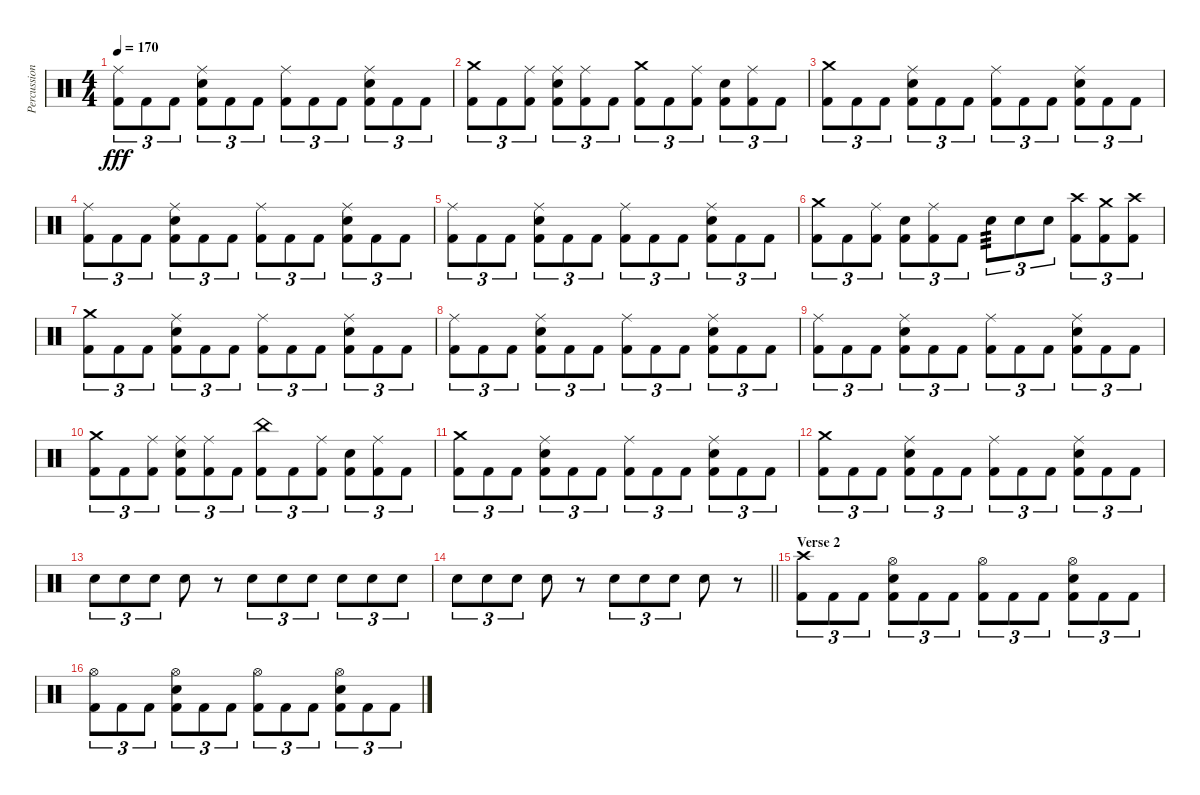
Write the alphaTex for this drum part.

\track ("Percussion" "Percussion") {instrument percussion}
\staff {score}
\articulation defaults
\ts (4 4)
\tempo 170
\clef neutral
\ks c
("Ride (middle)" "Kick (hit) 2").8{tu (3 2) dy fff} "Kick (hit) 2".8{tu (3 2)} "Kick (hit) 2".8{tu (3 2)} ("Ride (middle)" "Snare (hit) 2" "Kick (hit) 2").8{tu (3 2)} "Kick (hit) 2".8{tu (3 2)} "Kick (hit) 2".8{tu (3 2)} ("Ride (middle)" "Kick (hit) 2").8{tu (3 2)} "Kick (hit) 2".8{tu (3 2)} "Kick (hit) 2".8{tu (3 2)} ("Ride (middle)" "Snare (hit) 2" "Kick (hit) 2").8{tu (3 2)} "Kick (hit) 2".8{tu (3 2)} "Kick (hit) 2".8{tu (3 2)} |
("Crash medium (hit)" "Kick (hit) 2").8{tu (3 2)} "Kick (hit) 2".8{tu (3 2)} ("Ride (middle)" "Kick (hit) 2").8{tu (3 2)} ("Ride (middle)" "Snare (hit) 2" "Kick (hit) 2").8{tu (3 2)} ("Ride (middle)" "Kick (hit) 2").8{tu (3 2)} "Kick (hit) 2".8{tu (3 2)} ("Crash medium (hit)" "Kick (hit) 2").8{tu (3 2)} "Kick (hit) 2".8{tu (3 2)} ("Ride (middle)" "Kick (hit) 2").8{tu (3 2)} ("Snare (hit) 2" "Kick (hit) 2").8{tu (3 2)} ("Ride (middle)" "Kick (hit) 2").8{tu (3 2)} "Kick (hit) 2".8{tu (3 2)} |
("Crash medium (hit)" "Kick (hit) 2").8{tu (3 2)} "Kick (hit) 2".8{tu (3 2)} "Kick (hit) 2".8{tu (3 2)} ("Ride (middle)" "Snare (hit) 2" "Kick (hit) 2").8{tu (3 2)} "Kick (hit) 2".8{tu (3 2)} "Kick (hit) 2".8{tu (3 2)} ("Ride (middle)" "Kick (hit) 2").8{tu (3 2)} "Kick (hit) 2".8{tu (3 2)} "Kick (hit) 2".8{tu (3 2)} ("Ride (middle)" "Snare (hit) 2" "Kick (hit) 2").8{tu (3 2)} "Kick (hit) 2".8{tu (3 2)} "Kick (hit) 2".8{tu (3 2)} |
("Ride (middle)" "Kick (hit) 2").8{tu (3 2)} "Kick (hit) 2".8{tu (3 2)} "Kick (hit) 2".8{tu (3 2)} ("Ride (middle)" "Snare (hit) 2" "Kick (hit) 2").8{tu (3 2)} "Kick (hit) 2".8{tu (3 2)} "Kick (hit) 2".8{tu (3 2)} ("Ride (middle)" "Kick (hit) 2").8{tu (3 2)} "Kick (hit) 2".8{tu (3 2)} "Kick (hit) 2".8{tu (3 2)} ("Ride (middle)" "Snare (hit) 2" "Kick (hit) 2").8{tu (3 2)} "Kick (hit) 2".8{tu (3 2)} "Kick (hit) 2".8{tu (3 2)} |
("Ride (middle)" "Kick (hit) 2").8{tu (3 2)} "Kick (hit) 2".8{tu (3 2)} "Kick (hit) 2".8{tu (3 2)} ("Ride (middle)" "Snare (hit) 2" "Kick (hit) 2").8{tu (3 2)} "Kick (hit) 2".8{tu (3 2)} "Kick (hit) 2".8{tu (3 2)} ("Ride (middle)" "Kick (hit) 2").8{tu (3 2)} "Kick (hit) 2".8{tu (3 2)} "Kick (hit) 2".8{tu (3 2)} ("Ride (middle)" "Snare (hit) 2" "Kick (hit) 2").8{tu (3 2)} "Kick (hit) 2".8{tu (3 2)} "Kick (hit) 2".8{tu (3 2)} |
("Crash medium (hit)" "Kick (hit) 2").8{tu (3 2)} "Kick (hit) 2".8{tu (3 2)} ("Ride (middle)" "Kick (hit) 2").8{tu (3 2)} ("Snare (hit) 2" "Kick (hit) 2").8{tu (3 2)} ("Ride (middle)" "Kick (hit) 2").8{tu (3 2)} "Kick (hit) 2".8{tu (3 2)} "Electric Snare (hit)".8{tu (3 2) tp 3} "Electric Snare (hit)".8{tu (3 2)} "Electric Snare (hit)".8{tu (3 2)} ("Crash high (hit)" "Kick (hit) 2").8{tu (3 2)} ("Crash medium (hit)" "Kick (hit) 2").8{tu (3 2)} ("Crash high (hit)" "Kick (hit) 2").8{tu (3 2)} |
("Crash medium (hit)" "Kick (hit) 2").8{tu (3 2)} "Kick (hit) 2".8{tu (3 2)} "Kick (hit) 2".8{tu (3 2)} ("Ride (middle)" "Snare (hit) 2" "Kick (hit) 2").8{tu (3 2)} "Kick (hit) 2".8{tu (3 2)} "Kick (hit) 2".8{tu (3 2)} ("Ride (middle)" "Kick (hit) 2").8{tu (3 2)} "Kick (hit) 2".8{tu (3 2)} "Kick (hit) 2".8{tu (3 2)} ("Ride (middle)" "Snare (hit) 2" "Kick (hit) 2").8{tu (3 2)} "Kick (hit) 2".8{tu (3 2)} "Kick (hit) 2".8{tu (3 2)} |
("Ride (middle)" "Kick (hit) 2").8{tu (3 2)} "Kick (hit) 2".8{tu (3 2)} "Kick (hit) 2".8{tu (3 2)} ("Ride (middle)" "Snare (hit) 2" "Kick (hit) 2").8{tu (3 2)} "Kick (hit) 2".8{tu (3 2)} "Kick (hit) 2".8{tu (3 2)} ("Ride (middle)" "Kick (hit) 2").8{tu (3 2)} "Kick (hit) 2".8{tu (3 2)} "Kick (hit) 2".8{tu (3 2)} ("Ride (middle)" "Snare (hit) 2" "Kick (hit) 2").8{tu (3 2)} "Kick (hit) 2".8{tu (3 2)} "Kick (hit) 2".8{tu (3 2)} |
("Ride (middle)" "Kick (hit) 2").8{tu (3 2)} "Kick (hit) 2".8{tu (3 2)} "Kick (hit) 2".8{tu (3 2)} ("Ride (middle)" "Snare (hit) 2" "Kick (hit) 2").8{tu (3 2)} "Kick (hit) 2".8{tu (3 2)} "Kick (hit) 2".8{tu (3 2)} ("Ride (middle)" "Kick (hit) 2").8{tu (3 2)} "Kick (hit) 2".8{tu (3 2)} "Kick (hit) 2".8{tu (3 2)} ("Ride (middle)" "Snare (hit) 2" "Kick (hit) 2").8{tu (3 2)} "Kick (hit) 2".8{tu (3 2)} "Kick (hit) 2".8{tu (3 2)} |
("Crash medium (hit)" "Kick (hit) 2").8{tu (3 2)} "Kick (hit) 2".8{tu (3 2)} ("Ride (middle)" "Kick (hit) 2").8{tu (3 2)} ("Ride (middle)" "Snare (hit) 2" "Kick (hit) 2").8{tu (3 2)} ("Ride (middle)" "Kick (hit) 2").8{tu (3 2)} "Kick (hit) 2".8{tu (3 2)} ("China (hit)" "Kick (hit) 2").8{tu (3 2)} "Kick (hit) 2".8{tu (3 2)} ("Ride (middle)" "Kick (hit) 2").8{tu (3 2)} ("Snare (hit) 2" "Kick (hit) 2").8{tu (3 2)} ("Ride (middle)" "Kick (hit) 2").8{tu (3 2)} "Kick (hit) 2".8{tu (3 2)} |
("Crash medium (hit)" "Kick (hit) 2").8{tu (3 2)} "Kick (hit) 2".8{tu (3 2)} "Kick (hit) 2".8{tu (3 2)} ("Ride (middle)" "Snare (hit) 2" "Kick (hit) 2").8{tu (3 2)} "Kick (hit) 2".8{tu (3 2)} "Kick (hit) 2".8{tu (3 2)} ("Ride (middle)" "Kick (hit) 2").8{tu (3 2)} "Kick (hit) 2".8{tu (3 2)} "Kick (hit) 2".8{tu (3 2)} ("Ride (middle)" "Snare (hit) 2" "Kick (hit) 2").8{tu (3 2)} "Kick (hit) 2".8{tu (3 2)} "Kick (hit) 2".8{tu (3 2)} |
("Crash medium (hit)" "Kick (hit) 2").8{tu (3 2)} "Kick (hit) 2".8{tu (3 2)} "Kick (hit) 2".8{tu (3 2)} ("Ride (middle)" "Snare (hit) 2" "Kick (hit) 2").8{tu (3 2)} "Kick (hit) 2".8{tu (3 2)} "Kick (hit) 2".8{tu (3 2)} ("Ride (middle)" "Kick (hit) 2").8{tu (3 2)} "Kick (hit) 2".8{tu (3 2)} "Kick (hit) 2".8{tu (3 2)} ("Ride (middle)" "Snare (hit) 2" "Kick (hit) 2").8{tu (3 2)} "Kick (hit) 2".8{tu (3 2)} "Kick (hit) 2".8{tu (3 2)} |
"Electric Snare (hit)".8{tu (3 2)} "Electric Snare (hit)".8{tu (3 2)} "Electric Snare (hit)".8{tu (3 2)} "Electric Snare (hit)".8 r.8 "Electric Snare (hit)".8{tu (3 2)} "Electric Snare (hit)".8{tu (3 2)} "Electric Snare (hit)".8{tu (3 2)} "Electric Snare (hit)".8{tu (3 2)} "Electric Snare (hit)".8{tu (3 2)} "Electric Snare (hit)".8{tu (3 2)} |
\barLineRight lightlight "Electric Snare (hit)".8{tu (3 2)} "Electric Snare (hit)".8{tu (3 2)} "Electric Snare (hit)".8{tu (3 2)} "Electric Snare (hit)".8
r.8 "Electric Snare (hit)".8{tu (3 2)} "Electric Snare (hit)".8{tu (3 2)} "Electric Snare (hit)".8{tu (3 2)} "Electric Snare (hit)".8 r.8 |
\section ("" "Verse 2")
("Crash high (hit)" "Kick (hit) 2").8{tu (3 2)} "Kick (hit) 2".8{tu (3 2)} "Kick (hit) 2".8{tu (3 2)} ("Hi-Hat (open)" "Snare (hit) 2" "Kick (hit) 2").8{tu (3 2)} "Kick (hit) 2".8{tu (3 2)} "Kick (hit) 2".8{tu (3 2)} ("Hi-Hat (open)" "Kick (hit) 2").8{tu (3 2)} "Kick (hit) 2".8{tu (3 2)} "Kick (hit) 2".8{tu (3 2)} ("Hi-Hat (open)" "Snare (hit) 2" "Kick (hit) 2").8{tu (3 2)} "Kick (hit) 2".8{tu (3 2)} "Kick (hit) 2".8{tu (3 2)} |
("Hi-Hat (open)" "Kick (hit) 2").8{tu (3 2)} "Kick (hit) 2".8{tu (3 2)} "Kick (hit) 2".8{tu (3 2)} ("Hi-Hat (open)" "Snare (hit) 2" "Kick (hit) 2").8{tu (3 2)} "Kick (hit) 2".8{tu (3 2)} "Kick (hit) 2".8{tu (3 2)} ("Hi-Hat (open)" "Kick (hit) 2").8{tu (3 2)} "Kick (hit) 2".8{tu (3 2)} "Kick (hit) 2".8{tu (3 2)} ("Hi-Hat (open)" "Snare (hit) 2" "Kick (hit) 2").8{tu (3 2)} "Kick (hit) 2".8{tu (3 2)} "Kick (hit) 2".8{tu (3 2)}
